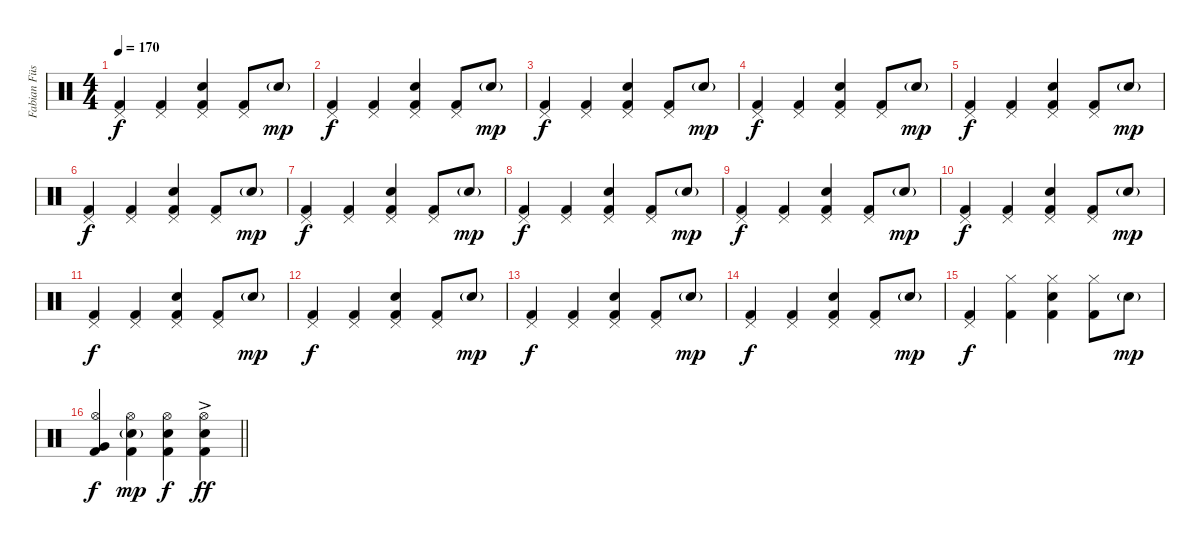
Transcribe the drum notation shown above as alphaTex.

\track ("Fabian Füss" "Fabian Füs") {instrument percussion}
\staff {score}
\articulation defaults
\ts (4 4)
\tempo 170
\clef neutral
\ks c
("Pedal Hi-Hat (hit)" "Kick (hit) 2").4{dy f} ("Pedal Hi-Hat (hit)" "Kick (hit) 2").4 ("Pedal Hi-Hat (hit)" "Snare (hit) 2" "Kick (hit) 2").4 ("Pedal Hi-Hat (hit)" "Kick (hit) 2").8 "Snare (hit) 2"{g}.8{dy mp} |
("Pedal Hi-Hat (hit)" "Kick (hit) 2").4{dy f} ("Pedal Hi-Hat (hit)" "Kick (hit) 2").4 ("Pedal Hi-Hat (hit)" "Snare (hit) 2" "Kick (hit) 2").4 ("Pedal Hi-Hat (hit)" "Kick (hit) 2").8 "Snare (hit) 2"{g}.8{dy mp} |
("Pedal Hi-Hat (hit)" "Kick (hit) 2").4{dy f} ("Pedal Hi-Hat (hit)" "Kick (hit) 2").4 ("Pedal Hi-Hat (hit)" "Snare (hit) 2" "Kick (hit) 2").4 ("Pedal Hi-Hat (hit)" "Kick (hit) 2").8 "Snare (hit) 2"{g}.8{dy mp} |
("Pedal Hi-Hat (hit)" "Kick (hit) 2").4{dy f} ("Pedal Hi-Hat (hit)" "Kick (hit) 2").4 ("Pedal Hi-Hat (hit)" "Snare (hit) 2" "Kick (hit) 2").4 ("Pedal Hi-Hat (hit)" "Kick (hit) 2").8 "Snare (hit) 2"{g}.8{dy mp} |
("Pedal Hi-Hat (hit)" "Kick (hit) 2").4{dy f} ("Pedal Hi-Hat (hit)" "Kick (hit) 2").4 ("Pedal Hi-Hat (hit)" "Snare (hit) 2" "Kick (hit) 2").4 ("Pedal Hi-Hat (hit)" "Kick (hit) 2").8 "Snare (hit) 2"{g}.8{dy mp} |
("Pedal Hi-Hat (hit)" "Kick (hit) 2").4{dy f} ("Pedal Hi-Hat (hit)" "Kick (hit) 2").4 ("Pedal Hi-Hat (hit)" "Snare (hit) 2" "Kick (hit) 2").4 ("Pedal Hi-Hat (hit)" "Kick (hit) 2").8 "Snare (hit) 2"{g}.8{dy mp} |
("Pedal Hi-Hat (hit)" "Kick (hit) 2").4{dy f} ("Pedal Hi-Hat (hit)" "Kick (hit) 2").4 ("Pedal Hi-Hat (hit)" "Snare (hit) 2" "Kick (hit) 2").4 ("Pedal Hi-Hat (hit)" "Kick (hit) 2").8 "Snare (hit) 2"{g}.8{dy mp} |
("Pedal Hi-Hat (hit)" "Kick (hit) 2").4{dy f} ("Pedal Hi-Hat (hit)" "Kick (hit) 2").4 ("Pedal Hi-Hat (hit)" "Snare (hit) 2" "Kick (hit) 2").4 ("Pedal Hi-Hat (hit)" "Kick (hit) 2").8 "Snare (hit) 2"{g}.8{dy mp} |
("Pedal Hi-Hat (hit)" "Kick (hit) 2").4{dy f} ("Pedal Hi-Hat (hit)" "Kick (hit) 2").4 ("Pedal Hi-Hat (hit)" "Snare (hit) 2" "Kick (hit) 2").4 ("Pedal Hi-Hat (hit)" "Kick (hit) 2").8 "Snare (hit) 2"{g}.8{dy mp} |
("Pedal Hi-Hat (hit)" "Kick (hit) 2").4{dy f} ("Pedal Hi-Hat (hit)" "Kick (hit) 2").4 ("Pedal Hi-Hat (hit)" "Snare (hit) 2" "Kick (hit) 2").4 ("Pedal Hi-Hat (hit)" "Kick (hit) 2").8 "Snare (hit) 2"{g}.8{dy mp} |
("Pedal Hi-Hat (hit)" "Kick (hit) 2").4{dy f} ("Pedal Hi-Hat (hit)" "Kick (hit) 2").4 ("Pedal Hi-Hat (hit)" "Snare (hit) 2" "Kick (hit) 2").4 ("Pedal Hi-Hat (hit)" "Kick (hit) 2").8 "Snare (hit) 2"{g}.8{dy mp} |
("Pedal Hi-Hat (hit)" "Kick (hit) 2").4{dy f} ("Pedal Hi-Hat (hit)" "Kick (hit) 2").4 ("Pedal Hi-Hat (hit)" "Snare (hit) 2" "Kick (hit) 2").4 ("Pedal Hi-Hat (hit)" "Kick (hit) 2").8 "Snare (hit) 2"{g}.8{dy mp} |
("Pedal Hi-Hat (hit)" "Kick (hit) 2").4{dy f} ("Pedal Hi-Hat (hit)" "Kick (hit) 2").4 ("Pedal Hi-Hat (hit)" "Snare (hit) 2" "Kick (hit) 2").4 ("Pedal Hi-Hat (hit)" "Kick (hit) 2").8 "Snare (hit) 2"{g}.8{dy mp} |
("Pedal Hi-Hat (hit)" "Kick (hit) 2").4{dy f} ("Pedal Hi-Hat (hit)" "Kick (hit) 2").4 ("Pedal Hi-Hat (hit)" "Snare (hit) 2" "Kick (hit) 2").4 ("Pedal Hi-Hat (hit)" "Kick (hit) 2").8 "Snare (hit) 2"{g}.8{dy mp} |
("Pedal Hi-Hat (hit)" "Kick (hit) 2").4{dy f} ("Hi-Hat (closed)" "Kick (hit) 2").4 ("Hi-Hat (closed)" "Snare (hit) 2" "Kick (hit) 2").4 ("Hi-Hat (closed)" "Kick (hit) 2").8 "Snare (hit) 2"{g}.8{dy mp} |
\barLineRight lightlight
("Hi-Hat (open)" "Very Low Tom (hit)" "Kick (hit) 2").4{dy f} ("Hi-Hat (open)" "Snare (hit) 2"{g} "Kick (hit) 2").4{dy mp} ("Hi-Hat (open)" "Snare (hit) 2" "Kick (hit) 2").4{dy f} ("Hi-Hat (open)" "Snare (hit) 2"{ac} "Kick (hit) 2").4{dy ff}
